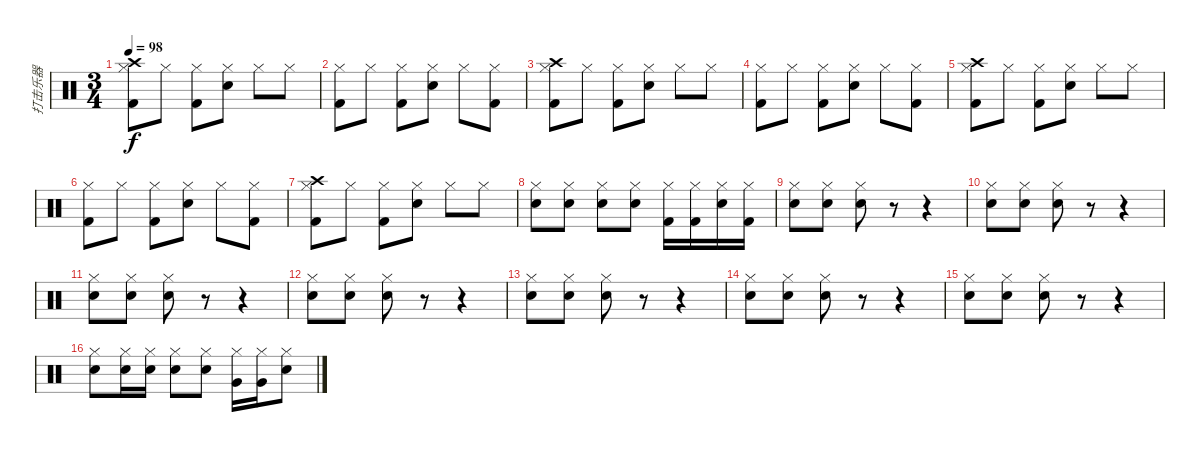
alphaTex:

\track ("打击乐器" "打击乐器") {instrument percussion}
\staff {score}
\articulation defaults
\ts (3 4)
\tempo 98
\clef neutral
\ks c
("Kick (hit) 2" "Crash high (hit)" "Hi-Hat (closed)").8{dy f} "Hi-Hat (closed)".8 ("Kick (hit) 2" "Hi-Hat (closed)").8 ("Snare (hit) 2" "Hi-Hat (closed)").8 "Hi-Hat (closed)".8 "Hi-Hat (closed)".8 |
("Kick (hit) 2" "Hi-Hat (closed)").8 "Hi-Hat (closed)".8 ("Kick (hit) 2" "Hi-Hat (closed)").8 ("Snare (hit) 2" "Hi-Hat (closed)").8 "Hi-Hat (closed)".8 ("Kick (hit) 2" "Hi-Hat (closed)").8 |
("Kick (hit) 2" "Crash high (hit)" "Hi-Hat (closed)").8 "Hi-Hat (closed)".8 ("Kick (hit) 2" "Hi-Hat (closed)").8 ("Snare (hit) 2" "Hi-Hat (closed)").8 "Hi-Hat (closed)".8 "Hi-Hat (closed)".8 |
("Kick (hit) 2" "Hi-Hat (closed)").8 "Hi-Hat (closed)".8 ("Kick (hit) 2" "Hi-Hat (closed)").8 ("Snare (hit) 2" "Hi-Hat (closed)").8 "Hi-Hat (closed)".8 ("Kick (hit) 2" "Hi-Hat (closed)").8 |
("Kick (hit) 2" "Crash high (hit)" "Hi-Hat (closed)").8 "Hi-Hat (closed)".8 ("Kick (hit) 2" "Hi-Hat (closed)").8 ("Snare (hit) 2" "Hi-Hat (closed)").8 "Hi-Hat (closed)".8 "Hi-Hat (closed)".8 |
("Kick (hit) 2" "Hi-Hat (closed)").8 "Hi-Hat (closed)".8 ("Kick (hit) 2" "Hi-Hat (closed)").8 ("Snare (hit) 2" "Hi-Hat (closed)").8 "Hi-Hat (closed)".8 ("Kick (hit) 2" "Hi-Hat (closed)").8 |
("Kick (hit) 2" "Crash high (hit)" "Hi-Hat (closed)").8 "Hi-Hat (closed)".8 ("Kick (hit) 2" "Hi-Hat (closed)").8 ("Snare (hit) 2" "Hi-Hat (closed)").8 "Hi-Hat (closed)".8 "Hi-Hat (closed)".8 |
("Snare (hit) 2" "Hi-Hat (closed)").8 ("Snare (hit) 2" "Hi-Hat (closed)").8 ("Snare (hit) 2" "Hi-Hat (closed)").8 ("Snare (hit) 2" "Hi-Hat (closed)").8 ("Kick (hit) 2" "Hi-Hat (closed)").16 ("Kick (hit) 2" "Hi-Hat (closed)").16 ("Snare (hit) 2" "Hi-Hat (closed)").16 ("Kick (hit) 2" "Hi-Hat (closed)").16 |
("Snare (hit) 2" "Hi-Hat (closed)").8 ("Snare (hit) 2" "Hi-Hat (closed)").8 ("Snare (hit) 2" "Hi-Hat (closed)").8 r.8 r.4 |
("Snare (hit) 2" "Hi-Hat (closed)").8 ("Snare (hit) 2" "Hi-Hat (closed)").8 ("Snare (hit) 2" "Hi-Hat (closed)").8 r.8 r.4 |
("Snare (hit) 2" "Hi-Hat (closed)").8 ("Snare (hit) 2" "Hi-Hat (closed)").8 ("Snare (hit) 2" "Hi-Hat (closed)").8 r.8 r.4 |
("Snare (hit) 2" "Hi-Hat (closed)").8 ("Snare (hit) 2" "Hi-Hat (closed)").8 ("Snare (hit) 2" "Hi-Hat (closed)").8 r.8 r.4 |
("Snare (hit) 2" "Hi-Hat (closed)").8 ("Snare (hit) 2" "Hi-Hat (closed)").8 ("Snare (hit) 2" "Hi-Hat (closed)").8 r.8 r.4 |
("Snare (hit) 2" "Hi-Hat (closed)").8 ("Snare (hit) 2" "Hi-Hat (closed)").8 ("Snare (hit) 2" "Hi-Hat (closed)").8 r.8 r.4 |
("Snare (hit) 2" "Hi-Hat (closed)").8 ("Snare (hit) 2" "Hi-Hat (closed)").8 ("Snare (hit) 2" "Hi-Hat (closed)").8 r.8 r.4 |
("Snare (hit) 2" "Hi-Hat (closed)").8 ("Snare (hit) 2" "Hi-Hat (closed)").16 ("Snare (hit) 2" "Hi-Hat (closed)").16 ("Snare (hit) 2" "Hi-Hat (closed)").8 ("Snare (hit) 2" "Hi-Hat (closed)").8 ("Very Low Tom (hit)" "Hi-Hat (closed)").16 ("Very Low Tom (hit)" "Hi-Hat (closed)").16 ("Snare (hit) 2" "Hi-Hat (closed)").8
